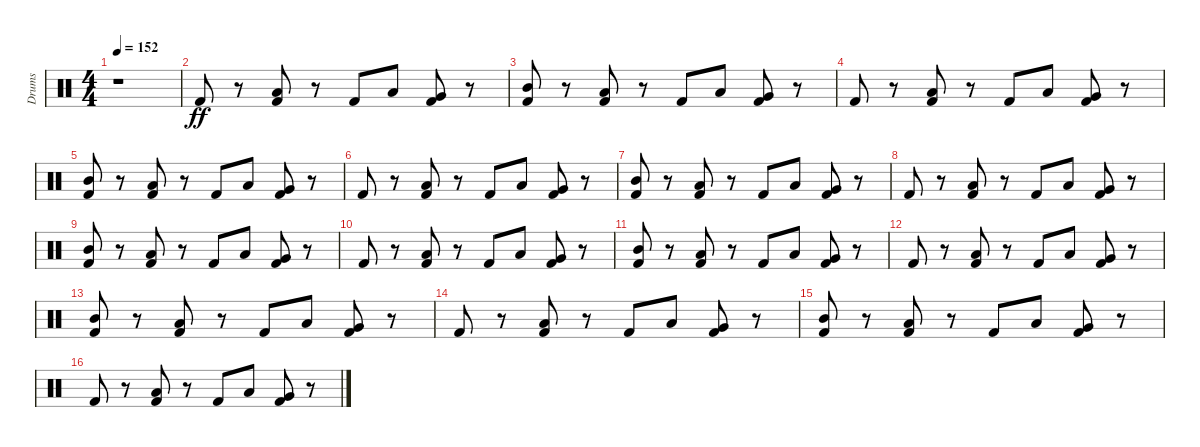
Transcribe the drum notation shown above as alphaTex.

\track ("Drums" "Drums") {instrument percussion}
\staff {score}
\articulation defaults
\ts (4 4)
\tempo 152
\clef neutral
\ks c
r.1{dy ff} |
"Kick (hit) 2".8{volume 12} r.8 ("Low Tom (hit)" "Kick (hit) 2").8 r.8 "Kick (hit) 2".8 "Low Tom (hit)".8 ("Very Low Tom (hit)" "Kick (hit) 2").8 r.8 |
("Kick (hit) 2" "Mid Tom (hit)").8 r.8 ("Low Tom (hit)" "Kick (hit) 2").8 r.8 "Kick (hit) 2".8 "Low Tom (hit)".8 ("Very Low Tom (hit)" "Kick (hit) 2").8 r.8 |
"Kick (hit) 2".8 r.8 ("Kick (hit) 2" "Low Tom (hit)").8 r.8 "Kick (hit) 2".8 "Low Tom (hit)".8 ("Kick (hit) 2" "Very Low Tom (hit)").8 r.8 |
("Kick (hit) 2" "Mid Tom (hit)").8 r.8 ("Kick (hit) 2" "Low Tom (hit)").8 r.8 "Kick (hit) 2".8 "Low Tom (hit)".8 ("Kick (hit) 2" "Very Low Tom (hit)").8 r.8 |
"Kick (hit) 2".8 r.8 ("Kick (hit) 2" "Low Tom (hit)").8 r.8 "Kick (hit) 2".8 "Low Tom (hit)".8 ("Kick (hit) 2" "Very Low Tom (hit)").8 r.8 |
("Mid Tom (hit)" "Kick (hit) 2").8 r.8 ("Kick (hit) 2" "Low Tom (hit)").8 r.8 "Kick (hit) 2".8 "Low Tom (hit)".8 ("Kick (hit) 2" "Very Low Tom (hit)").8 r.8 |
"Kick (hit) 2".8 r.8 ("Low Tom (hit)" "Kick (hit) 2").8 r.8 "Kick (hit) 2".8 "Low Tom (hit)".8 ("Very Low Tom (hit)" "Kick (hit) 2").8 r.8 |
("Mid Tom (hit)" "Kick (hit) 2").8 r.8 ("Low Tom (hit)" "Kick (hit) 2").8 r.8 "Kick (hit) 2".8 "Low Tom (hit)".8 ("Very Low Tom (hit)" "Kick (hit) 2").8 r.8 |
"Kick (hit) 2".8 r.8 ("Kick (hit) 2" "Low Tom (hit)").8 r.8 "Kick (hit) 2".8 "Low Tom (hit)".8 ("Kick (hit) 2" "Very Low Tom (hit)").8 r.8 |
("Mid Tom (hit)" "Kick (hit) 2").8 r.8 ("Kick (hit) 2" "Low Tom (hit)").8 r.8 "Kick (hit) 2".8 "Low Tom (hit)".8 ("Kick (hit) 2" "Very Low Tom (hit)").8 r.8 |
"Kick (hit) 2".8 r.8 ("Low Tom (hit)" "Kick (hit) 2").8 r.8 "Kick (hit) 2".8 "Low Tom (hit)".8 ("Very Low Tom (hit)" "Kick (hit) 2").8 r.8 |
("Mid Tom (hit)" "Kick (hit) 2").8 r.8 ("Low Tom (hit)" "Kick (hit) 2").8 r.8 "Kick (hit) 2".8 "Low Tom (hit)".8 ("Very Low Tom (hit)" "Kick (hit) 2").8 r.8 |
"Kick (hit) 2".8 r.8 ("Low Tom (hit)" "Kick (hit) 2").8 r.8 "Kick (hit) 2".8 "Low Tom (hit)".8 ("Very Low Tom (hit)" "Kick (hit) 2").8 r.8 |
("Kick (hit) 2" "Mid Tom (hit)").8 r.8 ("Low Tom (hit)" "Kick (hit) 2").8 r.8 "Kick (hit) 2".8 "Low Tom (hit)".8 ("Very Low Tom (hit)" "Kick (hit) 2").8 r.8 |
"Kick (hit) 2".8 r.8 ("Kick (hit) 2" "Low Tom (hit)").8 r.8 "Kick (hit) 2".8 "Low Tom (hit)".8 ("Kick (hit) 2" "Very Low Tom (hit)").8 r.8
